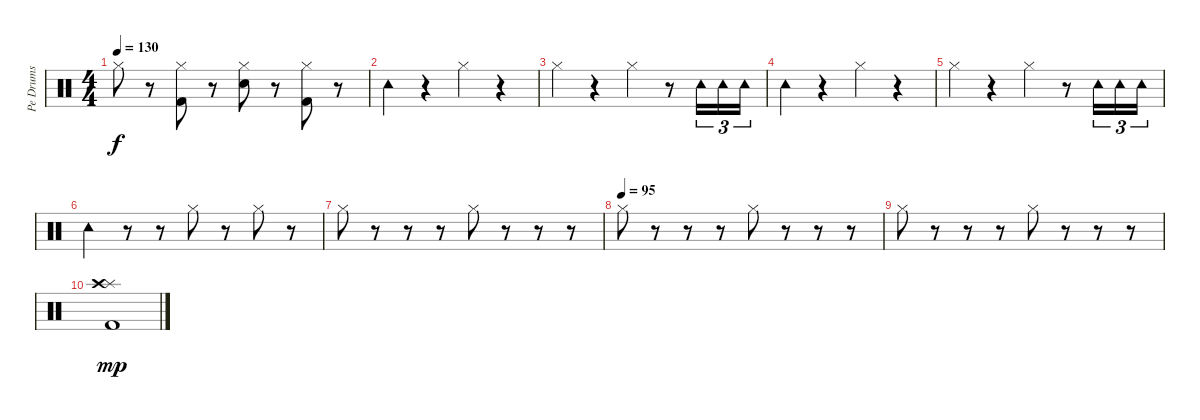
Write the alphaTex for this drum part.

\track ("Pe Drums" "Pe Drums") {instrument percussion}
\staff {score}
\articulation defaults
\ts (4 4)
\tempo 130
\clef neutral
\ks c "Hi-Hat (closed)".8{dy f}
r.8 ("Hi-Hat (closed)" "Kick (hit) 2").8 r.8 ("Hi-Hat (closed)" "Electric Snare (hit)").8 r.8 ("Hi-Hat (closed)" "Kick (hit) 2").8 r.8 |
"Tambourine (hit)".4 r.4 "Hi-Hat (closed)".4 r.4 |
"Hi-Hat (closed)".4 r.4 "Hi-Hat (closed)".4 r.8 "Tambourine (hit)".16{tu (3 2)} "Tambourine (hit)".16{tu (3 2)} "Tambourine (hit)".16{tu (3 2)} |
"Tambourine (hit)".4 r.4 "Hi-Hat (closed)".4 r.4 |
"Hi-Hat (closed)".4 r.4 "Hi-Hat (closed)".4 r.8 "Tambourine (hit)".16{tu (3 2)} "Tambourine (hit)".16{tu (3 2)} "Tambourine (hit)".16{tu (3 2)} |
"Tambourine (hit)".4 r.8 r.8 "Hi-Hat (closed)".8 r.8 "Hi-Hat (closed)".8 r.8 |
"Hi-Hat (closed)".8 r.8 r.8 r.8 "Hi-Hat (closed)".8 r.8 r.8 r.8 |
\tempo (95)
"Hi-Hat (closed)".8 r.8 r.8 r.8 "Hi-Hat (closed)".8 r.8 r.8 r.8 |
"Hi-Hat (closed)".8 r.8 r.8 r.8 "Hi-Hat (closed)".8 r.8 r.8 r.8 |
("Splash (hit)" "Crash high (hit)" "Kick (hit) 2").1{dy mp}
